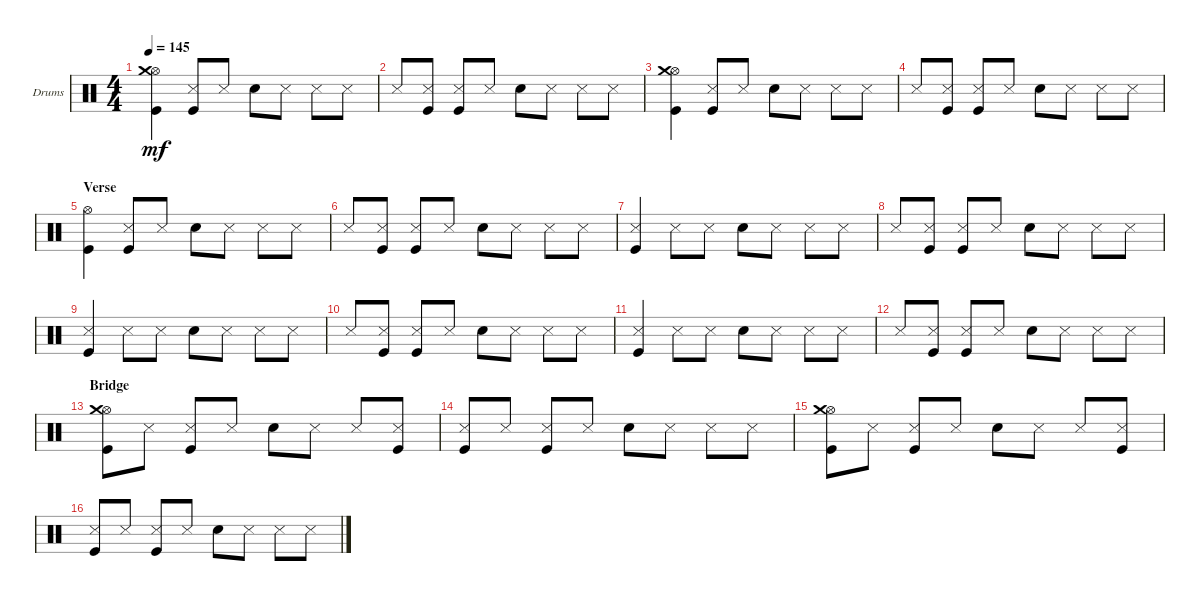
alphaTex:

\defaultSystemsLayout 4
\bracketExtendMode groupsimilarinstruments
\firstSystemTrackNameOrientation horizontal
\otherSystemsTrackNameOrientation horizontal
\track ("Matt Uychich" "Drums") {instrument percussion}
\staff {score}
\articulation defaults
\ts (4 4)
\tempo 145
\clef neutral
\scale
0.333333
\ks c
("Kick (hit)" "Hi-Hat (open)" "Crash medium (hit)").4{dy mf} ("Snare (side stick) 3" "Kick (hit)").8 "Snare (side stick) 3".8 "Snare (hit) 2".8 "Snare (side stick) 3".8 "Snare (side stick) 3".8 "Snare (side stick) 3".8 |
\scale
0.333333 "Snare (side stick) 3".8 ("Snare (side stick) 3" "Kick (hit)").8 ("Snare (side stick) 3" "Kick (hit)").8 "Snare (side stick) 3".8 "Snare (hit) 2".8 "Snare (side stick) 3".8 "Snare (side stick) 3".8 "Snare (side stick) 3".8 |
\scale
0.333333 ("Kick (hit)" "Hi-Hat (open)" "Crash medium (hit)").4 ("Snare (side stick) 3" "Kick (hit)").8 "Snare (side stick) 3".8 "Snare (hit) 2".8 "Snare (side stick) 3".8 "Snare (side stick) 3".8 "Snare (side stick) 3".8 |
\scale
0.333333 "Snare (side stick) 3".8 ("Snare (side stick) 3" "Kick (hit)").8 ("Snare (side stick) 3" "Kick (hit)").8 "Snare (side stick) 3".8 "Snare (hit) 2".8 "Snare (side stick) 3".8 "Snare (side stick) 3".8 "Snare (side stick) 3".8 |
\section ("" "Verse")
\scale
0.333333 ("Kick (hit)" "Hi-Hat (open)").4 ("Snare (side stick) 3" "Kick (hit)").8 "Snare (side stick) 3".8 "Snare (hit) 2".8 "Snare (side stick) 3".8 "Snare (side stick) 3".8 "Snare (side stick) 3".8 |
\scale
0.333333 "Snare (side stick) 3".8 ("Snare (side stick) 3" "Kick (hit)").8 ("Snare (side stick) 3" "Kick (hit)").8 "Snare (side stick) 3".8 "Snare (hit) 2".8 "Snare (side stick) 3".8 "Snare (side stick) 3".8 "Snare (side stick) 3".8 |
\scale
0.333333 ("Kick (hit)" "Snare (side stick) 3").4 "Snare (side stick) 3".8 "Snare (side stick) 3".8 "Snare (hit) 2".8 "Snare (side stick) 3".8 "Snare (side stick) 3".8 "Snare (side stick) 3".8 |
\scale
0.333333 "Snare (side stick) 3".8 ("Snare (side stick) 3" "Kick (hit)").8 ("Snare (side stick) 3" "Kick (hit)").8 "Snare (side stick) 3".8 "Snare (hit) 2".8 "Snare (side stick) 3".8 "Snare (side stick) 3".8 "Snare (side stick) 3".8 |
\scale
0.333333 ("Kick (hit)" "Snare (side stick) 3").4 "Snare (side stick) 3".8 "Snare (side stick) 3".8 "Snare (hit) 2".8 "Snare (side stick) 3".8 "Snare (side stick) 3".8 "Snare (side stick) 3".8 |
\scale
0.333333 "Snare (side stick) 3".8 ("Snare (side stick) 3" "Kick (hit)").8 ("Snare (side stick) 3" "Kick (hit)").8 "Snare (side stick) 3".8 "Snare (hit) 2".8 "Snare (side stick) 3".8 "Snare (side stick) 3".8 "Snare (side stick) 3".8 |
\scale
0.333333 ("Kick (hit)" "Snare (side stick) 3").4 "Snare (side stick) 3".8 "Snare (side stick) 3".8 "Snare (hit) 2".8 "Snare (side stick) 3".8 "Snare (side stick) 3".8 "Snare (side stick) 3".8 |
\scale
0.333333 "Snare (side stick) 3".8 ("Snare (side stick) 3" "Kick (hit)").8 ("Snare (side stick) 3" "Kick (hit)").8 "Snare (side stick) 3".8 "Snare (hit) 2".8 "Snare (side stick) 3".8 "Snare (side stick) 3".8 "Snare (side stick) 3".8 |
\section ("" "Bridge")
\scale
0.333333 ("Kick (hit)" "Hi-Hat (open)" "Crash medium (hit)").8 "Snare (side stick) 3".8 ("Snare (side stick) 3" "Kick (hit)").8 "Snare (side stick) 3".8 "Snare (hit) 2".8 "Snare (side stick) 3".8 "Snare (side stick) 3".8 ("Snare (side stick) 3" "Kick (hit)").8 |
\scale
0.333333 ("Snare (side stick) 3" "Kick (hit)").8 "Snare (side stick) 3".8 ("Snare (side stick) 3" "Kick (hit)").8 "Snare (side stick) 3".8 "Snare (hit) 2".8 "Snare (side stick) 3".8 "Snare (side stick) 3".8 "Snare (side stick) 3".8 |
\scale
0.333333 ("Kick (hit)" "Hi-Hat (open)" "Crash medium (hit)").8 "Snare (side stick) 3".8 ("Snare (side stick) 3" "Kick (hit)").8 "Snare (side stick) 3".8 "Snare (hit) 2".8 "Snare (side stick) 3".8 "Snare (side stick) 3".8 ("Snare (side stick) 3" "Kick (hit)").8 |
\scale
0.333333 ("Snare (side stick) 3" "Kick (hit)").8 "Snare (side stick) 3".8 ("Snare (side stick) 3" "Kick (hit)").8 "Snare (side stick) 3".8 "Snare (hit) 2".8 "Snare (side stick) 3".8 "Snare (side stick) 3".8 "Snare (side stick) 3".8
